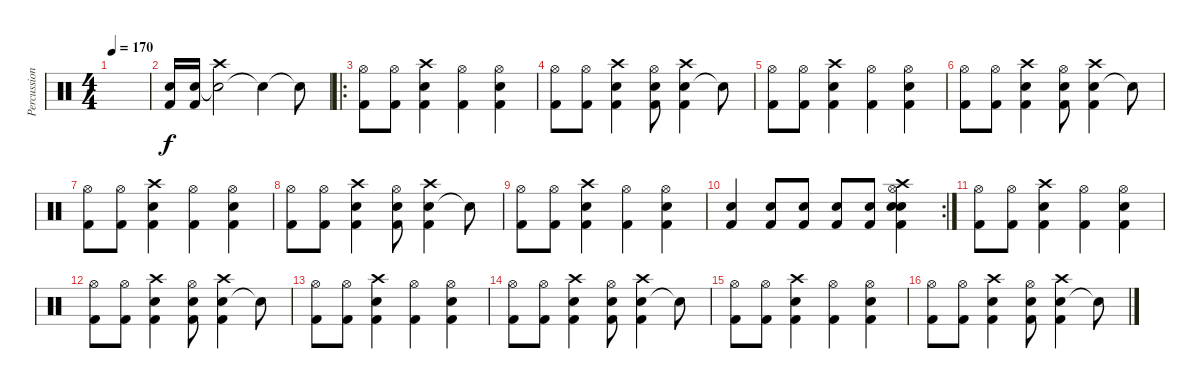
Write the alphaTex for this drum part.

\track ("Percussion" "Percussion") {instrument percussion}
\staff {score}
\articulation defaults
\ts (4 4)
\tempo 170
\clef neutral
\ks c
|
("Electric Snare (hit)" "Kick (hit) 2").16 ("Electric Snare (hit)" "Kick (hit) 2").16 ("Snare (hit)"{t} "Crash high (hit)").2 "Snare (hit)"{t}.4 "Snare (hit)"{t}.8 |
\ro
("Kick (hit) 2" "Hi-Hat (open)").8 ("Kick (hit) 2" "Hi-Hat (open)").8 ("Electric Snare (hit)" "Kick (hit) 2" "Crash high (hit)").4 ("Kick (hit) 2" "Hi-Hat (open)").4 ("Electric Snare (hit)" "Kick (hit) 2" "Hi-Hat (open)").4 |
("Kick (hit) 2" "Hi-Hat (open)").8 ("Kick (hit) 2" "Hi-Hat (open)").8 ("Electric Snare (hit)" "Kick (hit) 2" "Crash high (hit)").4 ("Electric Snare (hit)" "Kick (hit) 2" "Hi-Hat (open)").8 ("Electric Snare (hit)" "Kick (hit) 2" "Crash high (hit)").4 "Snare (hit)"{t}.8 |
("Kick (hit) 2" "Hi-Hat (open)").8 ("Kick (hit) 2" "Hi-Hat (open)").8 ("Electric Snare (hit)" "Kick (hit) 2" "Crash high (hit)").4 ("Kick (hit) 2" "Hi-Hat (open)").4 ("Electric Snare (hit)" "Kick (hit) 2" "Hi-Hat (open)").4 |
("Kick (hit) 2" "Hi-Hat (open)").8 ("Kick (hit) 2" "Hi-Hat (open)").8 ("Electric Snare (hit)" "Kick (hit) 2" "Crash high (hit)").4 ("Electric Snare (hit)" "Kick (hit) 2" "Hi-Hat (open)").8 ("Electric Snare (hit)" "Kick (hit) 2" "Crash high (hit)").4 "Snare (hit)"{t}.8 |
("Kick (hit) 2" "Hi-Hat (open)").8 ("Kick (hit) 2" "Hi-Hat (open)").8 ("Electric Snare (hit)" "Kick (hit) 2" "Crash high (hit)").4 ("Kick (hit) 2" "Hi-Hat (open)").4 ("Electric Snare (hit)" "Kick (hit) 2" "Hi-Hat (open)").4 |
("Kick (hit) 2" "Hi-Hat (open)").8 ("Kick (hit) 2" "Hi-Hat (open)").8 ("Electric Snare (hit)" "Kick (hit) 2" "Crash high (hit)").4 ("Electric Snare (hit)" "Kick (hit) 2" "Hi-Hat (open)").8 ("Electric Snare (hit)" "Kick (hit) 2" "Crash high (hit)").4 "Snare (hit)"{t}.8 |
("Kick (hit) 2" "Hi-Hat (open)").8 ("Kick (hit) 2" "Hi-Hat (open)").8 ("Electric Snare (hit)" "Kick (hit) 2" "Crash high (hit)").4 ("Kick (hit) 2" "Hi-Hat (open)").4 ("Electric Snare (hit)" "Kick (hit) 2" "Hi-Hat (open)").4 |
\rc 2
("Snare (hit) 2" "Kick (hit) 2").4 ("Snare (hit) 2" "Kick (hit) 2").8 ("Snare (hit) 2" "Kick (hit) 2").8 ("Snare (hit) 2" "Kick (hit) 2").8 ("Snare (hit) 2" "Kick (hit) 2").8 ("Snare (hit) 2" "Electric Snare (hit)" "Kick (hit) 2" "Crash high (hit)" "Hi-Hat (open)").4 |
("Kick (hit) 2" "Hi-Hat (open)").8 ("Kick (hit) 2" "Hi-Hat (open)").8 ("Electric Snare (hit)" "Kick (hit) 2" "Crash high (hit)").4 ("Kick (hit) 2" "Hi-Hat (open)").4 ("Electric Snare (hit)" "Kick (hit) 2" "Hi-Hat (open)").4 |
("Kick (hit) 2" "Hi-Hat (open)").8 ("Kick (hit) 2" "Hi-Hat (open)").8 ("Electric Snare (hit)" "Kick (hit) 2" "Crash high (hit)").4 ("Electric Snare (hit)" "Kick (hit) 2" "Hi-Hat (open)").8 ("Electric Snare (hit)" "Kick (hit) 2" "Crash high (hit)").4 "Snare (hit)"{t}.8 |
("Kick (hit) 2" "Hi-Hat (open)").8 ("Kick (hit) 2" "Hi-Hat (open)").8 ("Electric Snare (hit)" "Kick (hit) 2" "Crash high (hit)").4 ("Kick (hit) 2" "Hi-Hat (open)").4 ("Electric Snare (hit)" "Kick (hit) 2" "Hi-Hat (open)").4 |
("Kick (hit) 2" "Hi-Hat (open)").8 ("Kick (hit) 2" "Hi-Hat (open)").8 ("Electric Snare (hit)" "Kick (hit) 2" "Crash high (hit)").4 ("Electric Snare (hit)" "Kick (hit) 2" "Hi-Hat (open)").8 ("Electric Snare (hit)" "Kick (hit) 2" "Crash high (hit)").4 "Snare (hit)"{t}.8 |
("Kick (hit) 2" "Hi-Hat (open)").8 ("Kick (hit) 2" "Hi-Hat (open)").8 ("Electric Snare (hit)" "Kick (hit) 2" "Crash high (hit)").4 ("Kick (hit) 2" "Hi-Hat (open)").4 ("Electric Snare (hit)" "Kick (hit) 2" "Hi-Hat (open)").4 |
("Kick (hit) 2" "Hi-Hat (open)").8 ("Kick (hit) 2" "Hi-Hat (open)").8 ("Electric Snare (hit)" "Kick (hit) 2" "Crash high (hit)").4 ("Electric Snare (hit)" "Kick (hit) 2" "Hi-Hat (open)").8 ("Electric Snare (hit)" "Kick (hit) 2" "Crash high (hit)").4 "Snare (hit)"{t}.8
